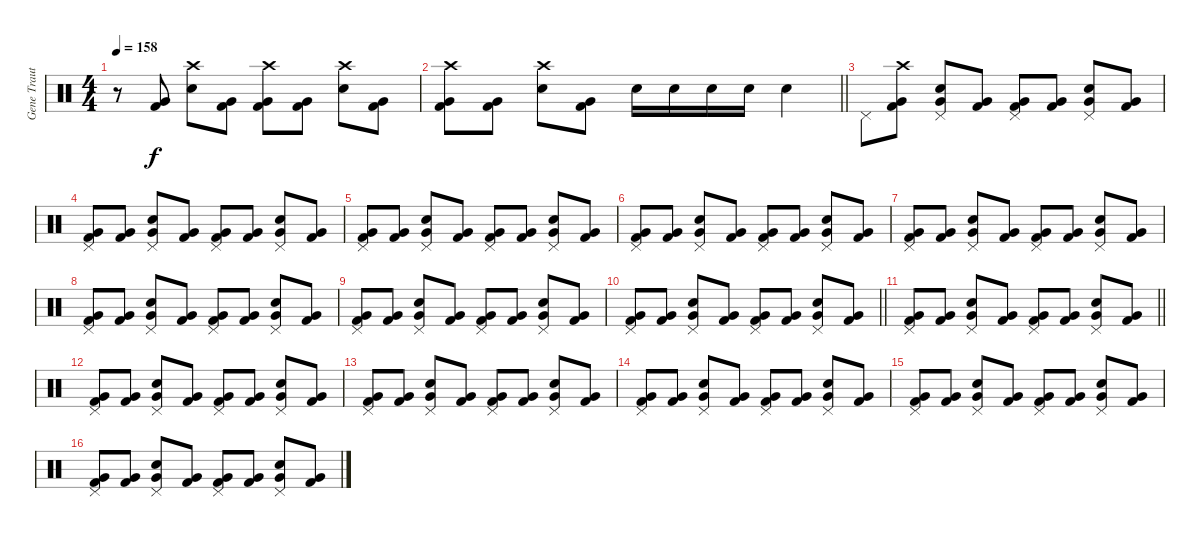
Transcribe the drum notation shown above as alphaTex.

\track ("Gene Trautmann" "Gene Traut") {instrument percussion}
\staff {score}
\articulation defaults
\ts (4 4)
\tempo 158
\clef neutral
\ks c
r.8{dy f} ("Very Low Tom (hit)" "Kick (hit) 2").8 ("Crash high (hit)" "Electric Snare (hit)").8 ("Very Low Tom (hit)" "Kick (hit) 2").8 ("Crash high (hit)" "Very Low Tom (hit)" "Kick (hit) 2").8 ("Very Low Tom (hit)" "Kick (hit) 2").8 ("Crash high (hit)" "Electric Snare (hit)").8 ("Very Low Tom (hit)" "Kick (hit) 2").8 |
\barLineRight lightlight
("Crash high (hit)" "Very Low Tom (hit)" "Kick (hit) 2").8 ("Very Low Tom (hit)" "Kick (hit) 2").8 ("Crash high (hit)" "Electric Snare (hit)").8 ("Very Low Tom (hit)" "Kick (hit) 2").8 "Electric Snare (hit)".16 "Electric Snare (hit)".16 "Electric Snare (hit)".16 "Electric Snare (hit)".16 "Electric Snare (hit)".4 |
\section ("" "")
"Pedal Hi-Hat (hit)".8 ("Crash high (hit)" "Very Low Tom (hit)" "Kick (hit) 2").8 ("Pedal Hi-Hat (hit)" "Electric Snare (hit)" "Very Low Tom (hit)").8 ("Very Low Tom (hit)" "Kick (hit) 2").8 ("Pedal Hi-Hat (hit)" "Very Low Tom (hit)" "Kick (hit) 2").8 ("Very Low Tom (hit)" "Kick (hit) 2").8 ("Pedal Hi-Hat (hit)" "Electric Snare (hit)" "Very Low Tom (hit)").8 ("Very Low Tom (hit)" "Kick (hit) 2").8 |
("Pedal Hi-Hat (hit)" "Very Low Tom (hit)" "Kick (hit) 2").8 ("Very Low Tom (hit)" "Kick (hit) 2").8 ("Pedal Hi-Hat (hit)" "Electric Snare (hit)" "Very Low Tom (hit)").8 ("Very Low Tom (hit)" "Kick (hit) 2").8 ("Pedal Hi-Hat (hit)" "Very Low Tom (hit)" "Kick (hit) 2").8 ("Very Low Tom (hit)" "Kick (hit) 2").8 ("Pedal Hi-Hat (hit)" "Electric Snare (hit)" "Very Low Tom (hit)").8 ("Very Low Tom (hit)" "Kick (hit) 2").8 |
("Pedal Hi-Hat (hit)" "Very Low Tom (hit)" "Kick (hit) 2").8 ("Very Low Tom (hit)" "Kick (hit) 2").8 ("Pedal Hi-Hat (hit)" "Electric Snare (hit)" "Very Low Tom (hit)").8 ("Very Low Tom (hit)" "Kick (hit) 2").8 ("Pedal Hi-Hat (hit)" "Very Low Tom (hit)" "Kick (hit) 2").8 ("Very Low Tom (hit)" "Kick (hit) 2").8 ("Pedal Hi-Hat (hit)" "Electric Snare (hit)" "Very Low Tom (hit)").8 ("Very Low Tom (hit)" "Kick (hit) 2").8 |
("Pedal Hi-Hat (hit)" "Very Low Tom (hit)" "Kick (hit) 2").8 ("Very Low Tom (hit)" "Kick (hit) 2").8 ("Pedal Hi-Hat (hit)" "Electric Snare (hit)" "Very Low Tom (hit)").8 ("Very Low Tom (hit)" "Kick (hit) 2").8 ("Pedal Hi-Hat (hit)" "Very Low Tom (hit)" "Kick (hit) 2").8 ("Very Low Tom (hit)" "Kick (hit) 2").8 ("Pedal Hi-Hat (hit)" "Electric Snare (hit)" "Very Low Tom (hit)").8 ("Very Low Tom (hit)" "Kick (hit) 2").8 |
("Pedal Hi-Hat (hit)" "Very Low Tom (hit)" "Kick (hit) 2").8 ("Very Low Tom (hit)" "Kick (hit) 2").8 ("Pedal Hi-Hat (hit)" "Electric Snare (hit)" "Very Low Tom (hit)").8 ("Very Low Tom (hit)" "Kick (hit) 2").8 ("Pedal Hi-Hat (hit)" "Very Low Tom (hit)" "Kick (hit) 2").8 ("Very Low Tom (hit)" "Kick (hit) 2").8 ("Pedal Hi-Hat (hit)" "Electric Snare (hit)" "Very Low Tom (hit)").8 ("Very Low Tom (hit)" "Kick (hit) 2").8 |
("Pedal Hi-Hat (hit)" "Very Low Tom (hit)" "Kick (hit) 2").8 ("Very Low Tom (hit)" "Kick (hit) 2").8 ("Pedal Hi-Hat (hit)" "Electric Snare (hit)" "Very Low Tom (hit)").8 ("Very Low Tom (hit)" "Kick (hit) 2").8 ("Pedal Hi-Hat (hit)" "Very Low Tom (hit)" "Kick (hit) 2").8 ("Very Low Tom (hit)" "Kick (hit) 2").8 ("Pedal Hi-Hat (hit)" "Electric Snare (hit)" "Very Low Tom (hit)").8 ("Very Low Tom (hit)" "Kick (hit) 2").8 |
("Pedal Hi-Hat (hit)" "Very Low Tom (hit)" "Kick (hit) 2").8 ("Very Low Tom (hit)" "Kick (hit) 2").8 ("Pedal Hi-Hat (hit)" "Electric Snare (hit)" "Very Low Tom (hit)").8 ("Very Low Tom (hit)" "Kick (hit) 2").8 ("Pedal Hi-Hat (hit)" "Very Low Tom (hit)" "Kick (hit) 2").8 ("Very Low Tom (hit)" "Kick (hit) 2").8 ("Pedal Hi-Hat (hit)" "Electric Snare (hit)" "Very Low Tom (hit)").8 ("Very Low Tom (hit)" "Kick (hit) 2").8 |
\barLineRight lightlight
("Pedal Hi-Hat (hit)" "Very Low Tom (hit)" "Kick (hit) 2").8 ("Very Low Tom (hit)" "Kick (hit) 2").8 ("Pedal Hi-Hat (hit)" "Electric Snare (hit)" "Very Low Tom (hit)").8 ("Very Low Tom (hit)" "Kick (hit) 2").8 ("Pedal Hi-Hat (hit)" "Very Low Tom (hit)" "Kick (hit) 2").8 ("Very Low Tom (hit)" "Kick (hit) 2").8 ("Pedal Hi-Hat (hit)" "Electric Snare (hit)" "Very Low Tom (hit)").8 ("Very Low Tom (hit)" "Kick (hit) 2").8 |
\section ("" "")
\barLineRight lightlight
("Pedal Hi-Hat (hit)" "Very Low Tom (hit)" "Kick (hit) 2").8 ("Very Low Tom (hit)" "Kick (hit) 2").8 ("Pedal Hi-Hat (hit)" "Electric Snare (hit)" "Very Low Tom (hit)").8 ("Very Low Tom (hit)" "Kick (hit) 2").8 ("Pedal Hi-Hat (hit)" "Very Low Tom (hit)" "Kick (hit) 2").8 ("Very Low Tom (hit)" "Kick (hit) 2").8 ("Pedal Hi-Hat (hit)" "Electric Snare (hit)" "Very Low Tom (hit)").8 ("Very Low Tom (hit)" "Kick (hit) 2").8 |
("Pedal Hi-Hat (hit)" "Very Low Tom (hit)" "Kick (hit) 2").8 ("Very Low Tom (hit)" "Kick (hit) 2").8 ("Pedal Hi-Hat (hit)" "Electric Snare (hit)" "Very Low Tom (hit)").8 ("Very Low Tom (hit)" "Kick (hit) 2").8 ("Pedal Hi-Hat (hit)" "Very Low Tom (hit)" "Kick (hit) 2").8 ("Very Low Tom (hit)" "Kick (hit) 2").8 ("Pedal Hi-Hat (hit)" "Electric Snare (hit)" "Very Low Tom (hit)").8 ("Very Low Tom (hit)" "Kick (hit) 2").8 |
("Pedal Hi-Hat (hit)" "Very Low Tom (hit)" "Kick (hit) 2").8 ("Very Low Tom (hit)" "Kick (hit) 2").8 ("Pedal Hi-Hat (hit)" "Electric Snare (hit)" "Very Low Tom (hit)").8 ("Very Low Tom (hit)" "Kick (hit) 2").8 ("Pedal Hi-Hat (hit)" "Very Low Tom (hit)" "Kick (hit) 2").8 ("Very Low Tom (hit)" "Kick (hit) 2").8 ("Pedal Hi-Hat (hit)" "Electric Snare (hit)" "Very Low Tom (hit)").8 ("Very Low Tom (hit)" "Kick (hit) 2").8 |
("Pedal Hi-Hat (hit)" "Very Low Tom (hit)" "Kick (hit) 2").8 ("Very Low Tom (hit)" "Kick (hit) 2").8 ("Pedal Hi-Hat (hit)" "Electric Snare (hit)" "Very Low Tom (hit)").8 ("Very Low Tom (hit)" "Kick (hit) 2").8 ("Pedal Hi-Hat (hit)" "Very Low Tom (hit)" "Kick (hit) 2").8 ("Very Low Tom (hit)" "Kick (hit) 2").8 ("Pedal Hi-Hat (hit)" "Electric Snare (hit)" "Very Low Tom (hit)").8 ("Very Low Tom (hit)" "Kick (hit) 2").8 |
("Pedal Hi-Hat (hit)" "Very Low Tom (hit)" "Kick (hit) 2").8 ("Very Low Tom (hit)" "Kick (hit) 2").8 ("Pedal Hi-Hat (hit)" "Electric Snare (hit)" "Very Low Tom (hit)").8 ("Very Low Tom (hit)" "Kick (hit) 2").8 ("Pedal Hi-Hat (hit)" "Very Low Tom (hit)" "Kick (hit) 2").8 ("Very Low Tom (hit)" "Kick (hit) 2").8 ("Pedal Hi-Hat (hit)" "Electric Snare (hit)" "Very Low Tom (hit)").8 ("Very Low Tom (hit)" "Kick (hit) 2").8 |
("Pedal Hi-Hat (hit)" "Very Low Tom (hit)" "Kick (hit) 2").8 ("Very Low Tom (hit)" "Kick (hit) 2").8 ("Pedal Hi-Hat (hit)" "Electric Snare (hit)" "Very Low Tom (hit)").8 ("Very Low Tom (hit)" "Kick (hit) 2").8 ("Pedal Hi-Hat (hit)" "Very Low Tom (hit)" "Kick (hit) 2").8 ("Very Low Tom (hit)" "Kick (hit) 2").8 ("Pedal Hi-Hat (hit)" "Electric Snare (hit)" "Very Low Tom (hit)").8 ("Very Low Tom (hit)" "Kick (hit) 2").8
